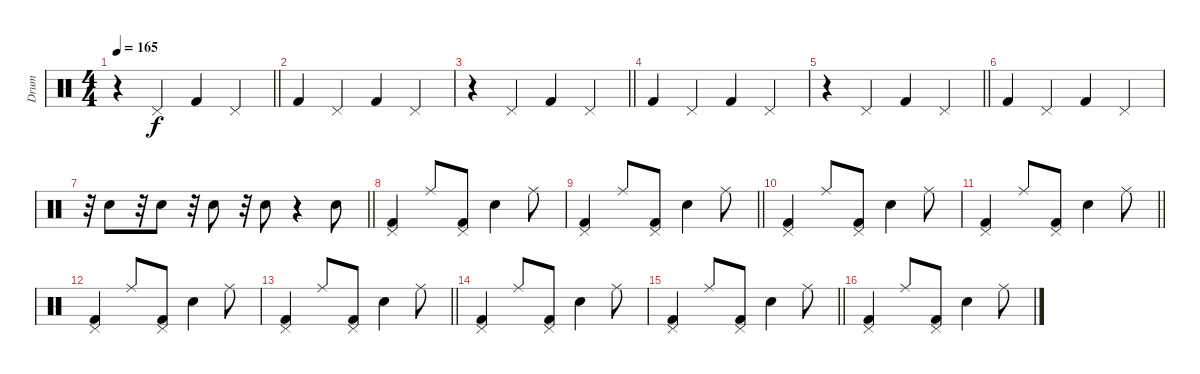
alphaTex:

\track ("Drum" "Drum") {instrument percussion}
\staff {score}
\articulation defaults
\ts (4 4)
\tempo 165
\clef neutral
\barLineRight lightlight
\ks c
r.4{dy f} "Pedal Hi-Hat (hit)".4 "Kick (hit) 2".4 "Pedal Hi-Hat (hit)".4 |
"Kick (hit) 2".4 "Pedal Hi-Hat (hit)".4 "Kick (hit) 2".4 "Pedal Hi-Hat (hit)".4 |
\barLineRight lightlight
r.4 "Pedal Hi-Hat (hit)".4 "Kick (hit) 2".4 "Pedal Hi-Hat (hit)".4 |
"Kick (hit) 2".4 "Pedal Hi-Hat (hit)".4 "Kick (hit) 2".4 "Pedal Hi-Hat (hit)".4 |
\barLineRight lightlight
r.4 "Pedal Hi-Hat (hit)".4 "Kick (hit) 2".4 "Pedal Hi-Hat (hit)".4 |
"Kick (hit) 2".4 "Pedal Hi-Hat (hit)".4 "Kick (hit) 2".4 "Pedal Hi-Hat (hit)".4 |
\barLineRight lightlight
r.32 "Electric Snare (hit)".8 r.32 "Electric Snare (hit)".8 r.32 "Electric Snare (hit)".8 r.32 "Electric Snare (hit)".8 r.4 "Electric Snare (hit)".8 |
("Kick (hit) 2" "Pedal Hi-Hat (hit)").4 "Ride (middle)".8 ("Kick (hit) 2" "Pedal Hi-Hat (hit)").8 "Electric Snare (hit)".4 "Ride (middle)".8 |
\barLineRight lightlight
("Kick (hit) 2" "Pedal Hi-Hat (hit)").4 "Ride (middle)".8 ("Kick (hit) 2" "Pedal Hi-Hat (hit)").8 "Electric Snare (hit)".4 "Ride (middle)".8 |
("Kick (hit) 2" "Pedal Hi-Hat (hit)").4 "Ride (middle)".8 ("Kick (hit) 2" "Pedal Hi-Hat (hit)").8 "Electric Snare (hit)".4 "Ride (middle)".8 |
\barLineRight lightlight
("Kick (hit) 2" "Pedal Hi-Hat (hit)").4 "Ride (middle)".8 ("Kick (hit) 2" "Pedal Hi-Hat (hit)").8 "Electric Snare (hit)".4 "Ride (middle)".8 |
("Kick (hit) 2" "Pedal Hi-Hat (hit)").4 "Ride (middle)".8 ("Kick (hit) 2" "Pedal Hi-Hat (hit)").8 "Electric Snare (hit)".4 "Ride (middle)".8 |
\barLineRight lightlight
("Kick (hit) 2" "Pedal Hi-Hat (hit)").4 "Ride (middle)".8 ("Kick (hit) 2" "Pedal Hi-Hat (hit)").8 "Electric Snare (hit)".4 "Ride (middle)".8 |
("Kick (hit) 2" "Pedal Hi-Hat (hit)").4 "Ride (middle)".8 ("Kick (hit) 2" "Pedal Hi-Hat (hit)").8 "Electric Snare (hit)".4 "Ride (middle)".8 |
\barLineRight lightlight
("Kick (hit) 2" "Pedal Hi-Hat (hit)").4 "Ride (middle)".8 ("Kick (hit) 2" "Pedal Hi-Hat (hit)").8 "Electric Snare (hit)".4 "Ride (middle)".8 |
("Kick (hit) 2" "Pedal Hi-Hat (hit)").4 "Ride (middle)".8 ("Kick (hit) 2" "Pedal Hi-Hat (hit)").8 "Electric Snare (hit)".4 "Ride (middle)".8
